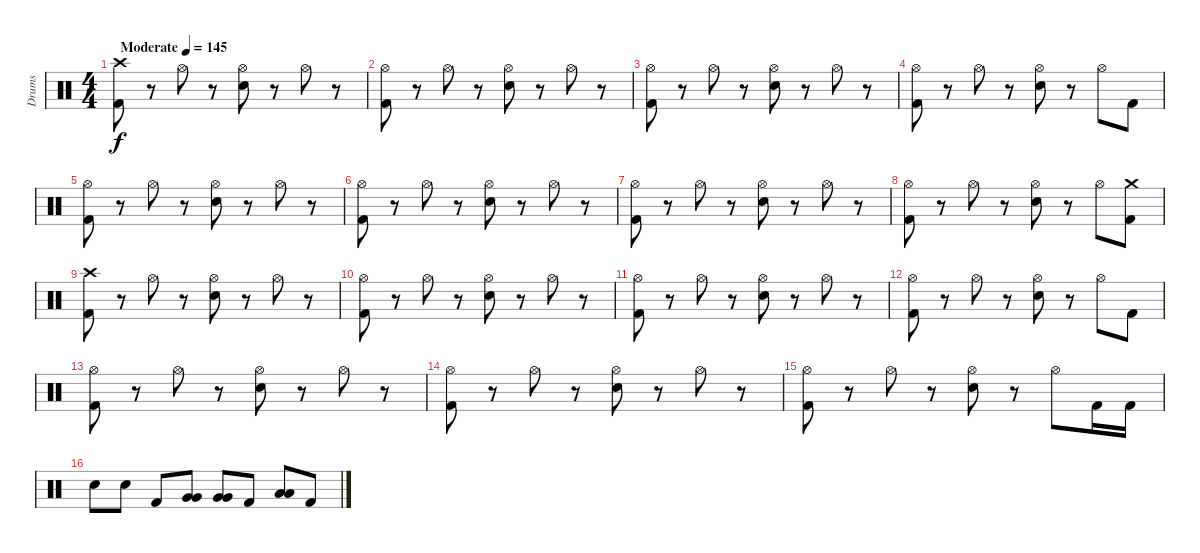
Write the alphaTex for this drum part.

\track ("Drums" "Drums") {instrument percussion}
\staff {score}
\articulation defaults
\ts (4 4)
\tempo (145 "Moderate")
\clef neutral
\ks c
("Crash high (hit)" "Kick (hit) 2").8{dy f} r.8 "Hi-Hat (open)".8 r.8 ("Hi-Hat (open)" "Electric Snare (hit)").8 r.8 "Hi-Hat (open)".8 r.8 |
("Hi-Hat (open)" "Kick (hit) 2").8 r.8 "Hi-Hat (open)".8 r.8 ("Hi-Hat (open)" "Electric Snare (hit)").8 r.8 "Hi-Hat (open)".8 r.8 |
("Hi-Hat (open)" "Kick (hit) 2").8 r.8 "Hi-Hat (open)".8 r.8 ("Hi-Hat (open)" "Electric Snare (hit)").8 r.8 "Hi-Hat (open)".8 r.8 |
("Hi-Hat (open)" "Kick (hit) 2").8 r.8 "Hi-Hat (open)".8 r.8 ("Hi-Hat (open)" "Electric Snare (hit)").8 r.8 "Hi-Hat (open)".8 "Kick (hit) 2".8 |
("Hi-Hat (open)" "Kick (hit) 2").8 r.8 "Hi-Hat (open)".8 r.8 ("Hi-Hat (open)" "Electric Snare (hit)").8 r.8 "Hi-Hat (open)".8 r.8 |
("Hi-Hat (open)" "Kick (hit) 2").8 r.8 "Hi-Hat (open)".8 r.8 ("Hi-Hat (open)" "Electric Snare (hit)").8 r.8 "Hi-Hat (open)".8 r.8 |
("Hi-Hat (open)" "Kick (hit) 2").8 r.8 "Hi-Hat (open)".8 r.8 ("Hi-Hat (open)" "Electric Snare (hit)").8 r.8 "Hi-Hat (open)".8 r.8 |
("Hi-Hat (open)" "Kick (hit) 2").8 r.8 "Hi-Hat (open)".8 r.8 ("Hi-Hat (open)" "Electric Snare (hit)").8 r.8 "Hi-Hat (open)".8 ("Crash medium (hit)" "Kick (hit) 2").8 |
("Crash high (hit)" "Kick (hit) 2").8 r.8 "Hi-Hat (open)".8 r.8 ("Hi-Hat (open)" "Electric Snare (hit)").8 r.8 "Hi-Hat (open)".8 r.8 |
("Hi-Hat (open)" "Kick (hit) 2").8 r.8 "Hi-Hat (open)".8 r.8 ("Hi-Hat (open)" "Electric Snare (hit)").8 r.8 "Hi-Hat (open)".8 r.8 |
("Hi-Hat (open)" "Kick (hit) 2").8 r.8 "Hi-Hat (open)".8 r.8 ("Hi-Hat (open)" "Electric Snare (hit)").8 r.8 "Hi-Hat (open)".8 r.8 |
("Hi-Hat (open)" "Kick (hit) 2").8 r.8 "Hi-Hat (open)".8 r.8 ("Hi-Hat (open)" "Electric Snare (hit)").8 r.8 "Hi-Hat (open)".8 "Kick (hit) 2".8 |
("Hi-Hat (open)" "Kick (hit) 2").8 r.8 "Hi-Hat (open)".8 r.8 ("Hi-Hat (open)" "Electric Snare (hit)").8 r.8 "Hi-Hat (open)".8 r.8 |
("Hi-Hat (open)" "Kick (hit) 2").8 r.8 "Hi-Hat (open)".8 r.8 ("Hi-Hat (open)" "Electric Snare (hit)").8 r.8 "Hi-Hat (open)".8 r.8 |
("Hi-Hat (open)" "Kick (hit) 2").8 r.8 "Hi-Hat (open)".8 r.8 ("Hi-Hat (open)" "Electric Snare (hit)").8 r.8 "Hi-Hat (open)".8 "Kick (hit) 2".16 "Kick (hit) 2".16 |
"Electric Snare (hit)".8 "Electric Snare (hit)".8 "Kick (hit) 2".8 ("Very Low Tom (hit)" "Very Low Tom (hit)").8 ("Very Low Tom (hit)" "Very Low Tom (hit)").8 "Kick (hit) 2".8 ("Low Floor Tom (hit)" "Low Floor Tom (hit)").8 "Kick (hit) 2".8
